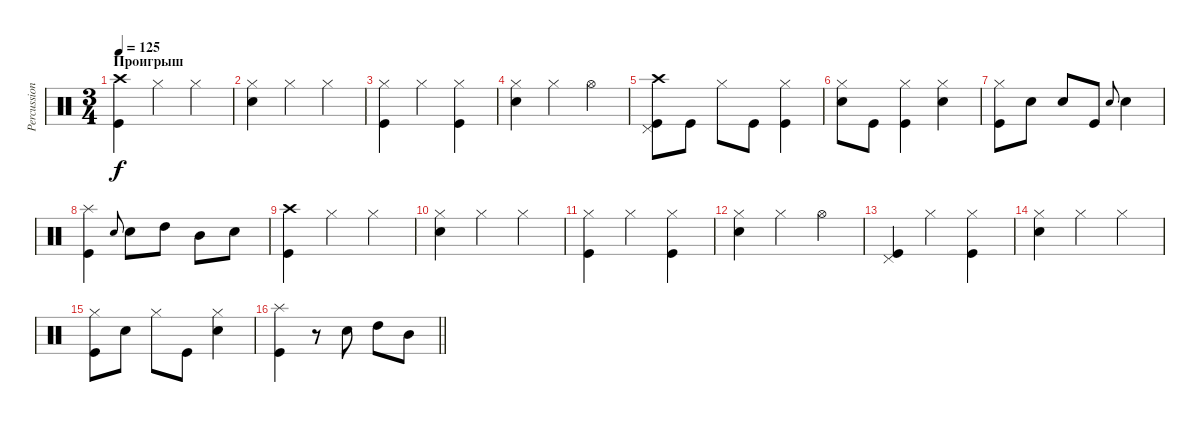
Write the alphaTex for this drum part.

\track ("Percussion" "Percussion") {instrument percussion}
\staff {score}
\articulation defaults
\ts (3 4)
\section ("" "Проигрыш")
\tempo 125
\clef neutral
\ks c
("Crash high (hit)" "Kick (hit)").4{dy f} "Hi-Hat (closed)".4 "Hi-Hat (closed)".4 |
("Hi-Hat (closed)" "Snare (hit) 2").4 "Hi-Hat (closed)".4 "Hi-Hat (closed)".4 |
("Hi-Hat (closed)" "Kick (hit)").4 "Hi-Hat (closed)".4 ("Hi-Hat (closed)" "Kick (hit)").4 |
("Hi-Hat (closed)" "Snare (hit) 2").4 "Hi-Hat (closed)".4 "Hi-Hat (open)".4 |
("Crash high (hit)" "Pedal Hi-Hat (hit)" "Kick (hit)").8 "Kick (hit)".8 "Hi-Hat (closed)".8 "Kick (hit)".8 ("Hi-Hat (closed)" "Kick (hit)").4 |
("Hi-Hat (closed)" "Snare (hit) 2").8 "Kick (hit)".8 ("Hi-Hat (closed)" "Kick (hit)").4 ("Hi-Hat (closed)" "Snare (hit) 2").4 |
("Hi-Hat (closed)" "Kick (hit)").8 "Snare (hit) 2".8 "Snare (hit) 2".8 "Kick (hit)".8 "Snare (hit) 2".8{gr onbeat} "Snare (hit) 2".4 |
("Splash (hit)" "Kick (hit)").4 "Snare (hit) 2".8{gr onbeat} "Snare (hit) 2".8 "High Tom (hit)".8 "Mid Tom (hit)".8 "Snare (hit) 2".8 |
("Crash high (hit)" "Kick (hit)").4 "Hi-Hat (closed)".4 "Hi-Hat (closed)".4 |
("Hi-Hat (closed)" "Snare (hit) 2").4 "Hi-Hat (closed)".4 "Hi-Hat (closed)".4 |
("Hi-Hat (closed)" "Kick (hit)").4 "Hi-Hat (closed)".4 ("Hi-Hat (closed)" "Kick (hit)").4 |
("Hi-Hat (closed)" "Snare (hit) 2").4 "Hi-Hat (closed)".4 "Hi-Hat (open)".4 |
("Pedal Hi-Hat (hit)" "Kick (hit)").4 "Hi-Hat (closed)".4 ("Hi-Hat (closed)" "Kick (hit)").4 |
("Hi-Hat (closed)" "Snare (hit) 2").4 "Hi-Hat (closed)".4 "Hi-Hat (closed)".4 |
("Hi-Hat (closed)" "Kick (hit)").8 "Snare (hit) 2".8 "Hi-Hat (closed)".8 "Kick (hit)".8 ("Hi-Hat (closed)" "Snare (hit) 2").4 |
\barLineRight lightlight
("Splash (hit)" "Kick (hit)").4 r.8 "Snare (hit) 2".8 "High Tom (hit)".8 "Mid Tom (hit)".8
